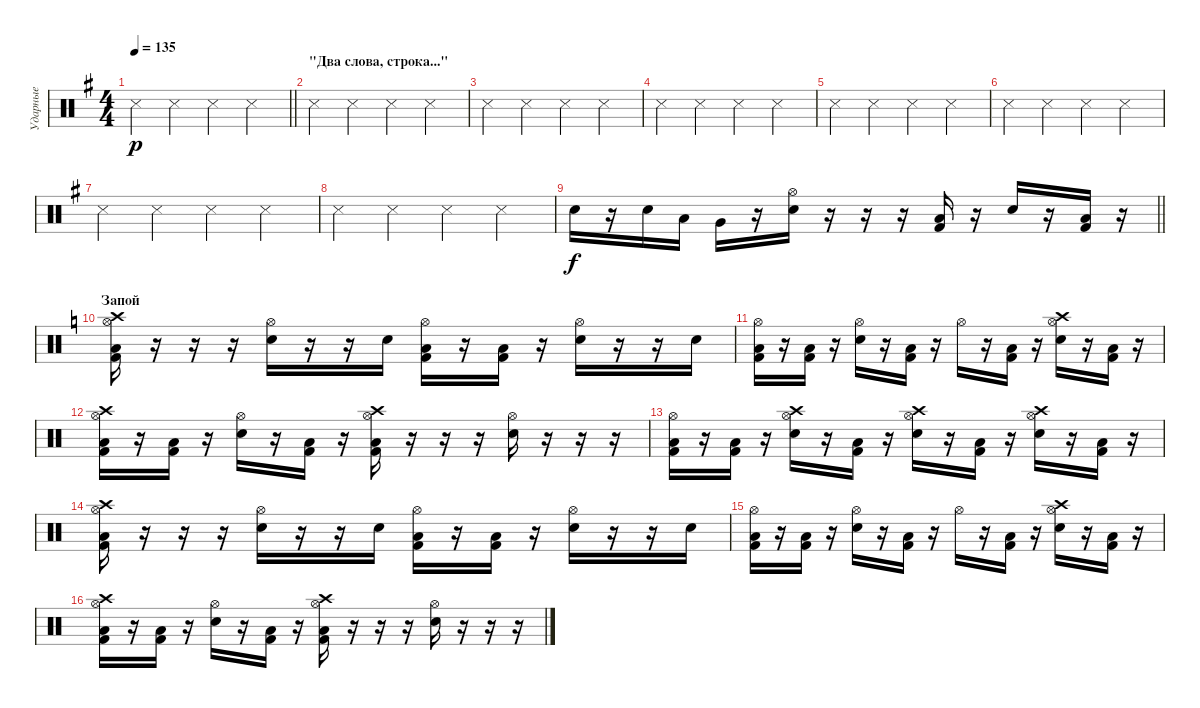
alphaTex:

\track ("Ударные" "Ударные") {instrument percussion}
\staff {score}
\articulation defaults
\ts (4 4)
\tempo 135
\clef neutral
\barLineRight lightlight
\ks eminor "Snare (side stick) 3".4{dy p} "Snare (side stick) 3".4 "Snare (side stick) 3".4 "Snare (side stick) 3".4
|
\section ("" "\"Два слова, строка...\"")
"Snare (side stick) 3".4 "Snare (side stick) 3".4 "Snare (side stick) 3".4 "Snare (side stick) 3".4 |
"Snare (side stick) 3".4 "Snare (side stick) 3".4 "Snare (side stick) 3".4 "Snare (side stick) 3".4 |
"Snare (side stick) 3".4 "Snare (side stick) 3".4 "Snare (side stick) 3".4 "Snare (side stick) 3".4 |
"Snare (side stick) 3".4 "Snare (side stick) 3".4 "Snare (side stick) 3".4 "Snare (side stick) 3".4 |
"Snare (side stick) 3".4 "Snare (side stick) 3".4 "Snare (side stick) 3".4 "Snare (side stick) 3".4 |
"Snare (side stick) 3".4 "Snare (side stick) 3".4 "Snare (side stick) 3".4 "Snare (side stick) 3".4 |
"Snare (side stick) 3".4 "Snare (side stick) 3".4 "Snare (side stick) 3".4 "Snare (side stick) 3".4 |
\barLineRight lightlight "Electric Snare (hit)".16{dy f}
r.16 "Electric Snare (hit)".16 "Low Tom (hit)".16 "Very Low Tom (hit)".16 r.16 ("Hi-Hat (open)" "Electric Snare (hit)").16 r.16 r.16 r.16 ("Low Floor Tom (hit)" "Kick (hit) 2").16 r.16 "Electric Snare (hit)".16 r.16 ("Low Floor Tom (hit)" "Kick (hit) 2").16 r.16 |
\section ("" "Запой")
\ks c
("Crash high (hit)" "Hi-Hat (open)" "Low Floor Tom (hit)" "Kick (hit) 2").16 r.16 r.16 r.16 ("Hi-Hat (open)" "Electric Snare (hit)").16 r.16 r.16 "Electric Snare (hit)".16 ("Hi-Hat (open)" "Low Floor Tom (hit)" "Kick (hit) 2").16 r.16 ("Low Floor Tom (hit)" "Kick (hit) 2").16 r.16 ("Hi-Hat (open)" "Electric Snare (hit)").16 r.16 r.16 "Electric Snare (hit)".16 |
("Hi-Hat (open)" "Low Floor Tom (hit)" "Kick (hit) 2").16 r.16 ("Low Floor Tom (hit)" "Kick (hit) 2").16 r.16 ("Hi-Hat (open)" "Electric Snare (hit)").16 r.16 ("Low Floor Tom (hit)" "Kick (hit) 2").16 r.16 "Hi-Hat (open)".16 r.16 ("Low Floor Tom (hit)" "Kick (hit) 2").16 r.16 ("Crash high (hit)" "Hi-Hat (open)" "Electric Snare (hit)").16 r.16 ("Low Floor Tom (hit)" "Kick (hit) 2").16 r.16 |
("Crash high (hit)" "Hi-Hat (open)" "Low Floor Tom (hit)" "Kick (hit) 2").16 r.16 ("Low Floor Tom (hit)" "Kick (hit) 2").16 r.16 ("Hi-Hat (open)" "Electric Snare (hit)").16 r.16 ("Low Floor Tom (hit)" "Kick (hit) 2").16 r.16 ("Crash high (hit)" "Hi-Hat (open)" "Low Floor Tom (hit)" "Kick (hit) 2").16 r.16 r.16 r.16 ("Hi-Hat (open)" "Electric Snare (hit)").16 r.16 r.16 r.16 |
("Hi-Hat (open)" "Low Floor Tom (hit)" "Kick (hit) 2").16 r.16 ("Low Floor Tom (hit)" "Kick (hit) 2").16 r.16 ("Crash high (hit)" "Hi-Hat (open)" "Electric Snare (hit)").16 r.16 ("Low Floor Tom (hit)" "Kick (hit) 2").16 r.16 ("Crash high (hit)" "Hi-Hat (open)" "Electric Snare (hit)").16 r.16 ("Low Floor Tom (hit)" "Kick (hit) 2").16 r.16 ("Crash high (hit)" "Hi-Hat (open)" "Electric Snare (hit)").16 r.16 ("Low Floor Tom (hit)" "Kick (hit) 2").16 r.16 |
("Crash high (hit)" "Hi-Hat (open)" "Low Floor Tom (hit)" "Kick (hit) 2").16 r.16 r.16 r.16 ("Hi-Hat (open)" "Electric Snare (hit)").16 r.16 r.16 "Electric Snare (hit)".16 ("Hi-Hat (open)" "Low Floor Tom (hit)" "Kick (hit) 2").16 r.16 ("Low Floor Tom (hit)" "Kick (hit) 2").16 r.16 ("Hi-Hat (open)" "Electric Snare (hit)").16 r.16 r.16 "Electric Snare (hit)".16 |
("Hi-Hat (open)" "Low Floor Tom (hit)" "Kick (hit) 2").16 r.16 ("Low Floor Tom (hit)" "Kick (hit) 2").16 r.16 ("Hi-Hat (open)" "Electric Snare (hit)").16 r.16 ("Low Floor Tom (hit)" "Kick (hit) 2").16 r.16 "Hi-Hat (open)".16 r.16 ("Low Floor Tom (hit)" "Kick (hit) 2").16 r.16 ("Crash high (hit)" "Hi-Hat (open)" "Electric Snare (hit)").16 r.16 ("Low Floor Tom (hit)" "Kick (hit) 2").16 r.16 |
("Crash high (hit)" "Hi-Hat (open)" "Low Floor Tom (hit)" "Kick (hit) 2").16 r.16 ("Low Floor Tom (hit)" "Kick (hit) 2").16 r.16 ("Hi-Hat (open)" "Electric Snare (hit)").16 r.16 ("Low Floor Tom (hit)" "Kick (hit) 2").16 r.16 ("Crash high (hit)" "Hi-Hat (open)" "Low Floor Tom (hit)" "Kick (hit) 2").16 r.16 r.16 r.16 ("Hi-Hat (open)" "Electric Snare (hit)").16 r.16 r.16 r.16
